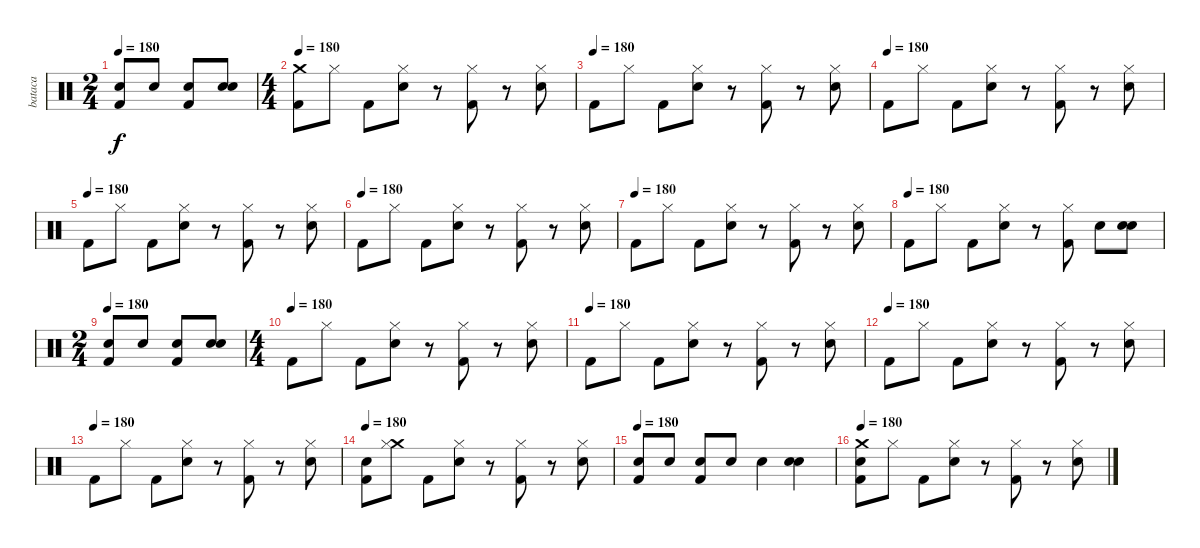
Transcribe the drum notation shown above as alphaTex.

\track ("bataca" "bataca") {instrument percussion}
\staff {score}
\articulation defaults
\ts (2 4)
\tempo 180
\clef neutral
\ks c
("Snare (hit) 2" "Kick (hit) 2").8{dy f} "Snare (hit) 2".8 ("Snare (hit) 2" "Kick (hit) 2").8 ("Snare (hit) 2" "Snare (hit) 2").8 |
\ts (4 4)
\tempo 180
("Crash medium (hit)" "Kick (hit) 2").8 "Hi-Hat (closed)".8 "Kick (hit) 2".8 ("Hi-Hat (closed)" "Snare (hit) 2").8 r.8 ("Hi-Hat (closed)" "Kick (hit) 2").8 r.8 ("Hi-Hat (closed)" "Snare (hit) 2").8 |
\tempo (180)
"Kick (hit) 2".8 "Hi-Hat (closed)".8 "Kick (hit) 2".8 ("Hi-Hat (closed)" "Snare (hit) 2").8 r.8 ("Hi-Hat (closed)" "Kick (hit) 2").8 r.8 ("Hi-Hat (closed)" "Snare (hit) 2").8 |
\tempo (180)
"Kick (hit) 2".8 "Hi-Hat (closed)".8 "Kick (hit) 2".8 ("Hi-Hat (closed)" "Snare (hit) 2").8 r.8 ("Hi-Hat (closed)" "Kick (hit) 2").8 r.8 ("Hi-Hat (closed)" "Snare (hit) 2").8 |
\tempo (180)
"Kick (hit) 2".8 "Hi-Hat (closed)".8 "Kick (hit) 2".8 ("Hi-Hat (closed)" "Snare (hit) 2").8 r.8 ("Hi-Hat (closed)" "Kick (hit) 2").8 r.8 ("Hi-Hat (closed)" "Snare (hit) 2").8 |
\tempo (180)
"Kick (hit) 2".8 "Hi-Hat (closed)".8 "Kick (hit) 2".8 ("Hi-Hat (closed)" "Snare (hit) 2").8 r.8 ("Hi-Hat (closed)" "Kick (hit) 2").8 r.8 ("Hi-Hat (closed)" "Snare (hit) 2").8 |
\tempo (180)
"Kick (hit) 2".8 "Hi-Hat (closed)".8 "Kick (hit) 2".8 ("Hi-Hat (closed)" "Snare (hit) 2").8 r.8 ("Hi-Hat (closed)" "Kick (hit) 2").8 r.8 ("Hi-Hat (closed)" "Snare (hit) 2").8 |
\tempo (180)
"Kick (hit) 2".8 "Hi-Hat (closed)".8 "Kick (hit) 2".8 ("Hi-Hat (closed)" "Snare (hit) 2").8 r.8 ("Hi-Hat (closed)" "Kick (hit) 2").8 "Snare (hit) 2".8 ("Snare (hit) 2" "Snare (hit) 2").8 |
\ts (2 4)
\tempo 180
("Snare (hit) 2" "Kick (hit) 2").8 "Snare (hit) 2".8 ("Snare (hit) 2" "Kick (hit) 2").8 ("Snare (hit) 2" "Snare (hit) 2").8 |
\ts (4 4)
\tempo (180)
"Kick (hit) 2".8 "Hi-Hat (closed)".8 "Kick (hit) 2".8 ("Hi-Hat (closed)" "Snare (hit) 2").8 r.8 ("Hi-Hat (closed)" "Kick (hit) 2").8 r.8 ("Hi-Hat (closed)" "Snare (hit) 2").8 |
\tempo (180)
"Kick (hit) 2".8 "Hi-Hat (closed)".8 "Kick (hit) 2".8 ("Hi-Hat (closed)" "Snare (hit) 2").8 r.8 ("Hi-Hat (closed)" "Kick (hit) 2").8 r.8 ("Hi-Hat (closed)" "Snare (hit) 2").8 |
\tempo (180)
"Kick (hit) 2".8 "Hi-Hat (closed)".8 "Kick (hit) 2".8 ("Hi-Hat (closed)" "Snare (hit) 2").8 r.8 ("Hi-Hat (closed)" "Kick (hit) 2").8 r.8 ("Hi-Hat (closed)" "Snare (hit) 2").8 |
\tempo (180)
"Kick (hit) 2".8 "Hi-Hat (closed)".8 "Kick (hit) 2".8 ("Hi-Hat (closed)" "Snare (hit) 2").8 r.8 ("Hi-Hat (closed)" "Kick (hit) 2").8 r.8 ("Hi-Hat (closed)" "Snare (hit) 2").8 |
\tempo 180
("Snare (hit) 2" "Kick (hit) 2").8 ("Crash medium (hit)" "Hi-Hat (closed)").8 "Kick (hit) 2".8 ("Hi-Hat (closed)" "Snare (hit) 2").8 r.8 ("Hi-Hat (closed)" "Kick (hit) 2").8 r.8 ("Hi-Hat (closed)" "Snare (hit) 2").8 |
\tempo 180
("Snare (hit) 2" "Kick (hit) 2").8 "Snare (hit) 2".8 ("Snare (hit) 2" "Kick (hit) 2").8 "Snare (hit) 2".8 "Snare (hit) 2".4 ("Snare (hit) 2" "Snare (hit) 2").4 |
\tempo 180
("Crash medium (hit)" "Snare (hit) 2" "Kick (hit) 2").8 "Hi-Hat (closed)".8 "Kick (hit) 2".8 ("Hi-Hat (closed)" "Snare (hit) 2").8 r.8 ("Hi-Hat (closed)" "Kick (hit) 2").8 r.8 ("Hi-Hat (closed)" "Snare (hit) 2").8
